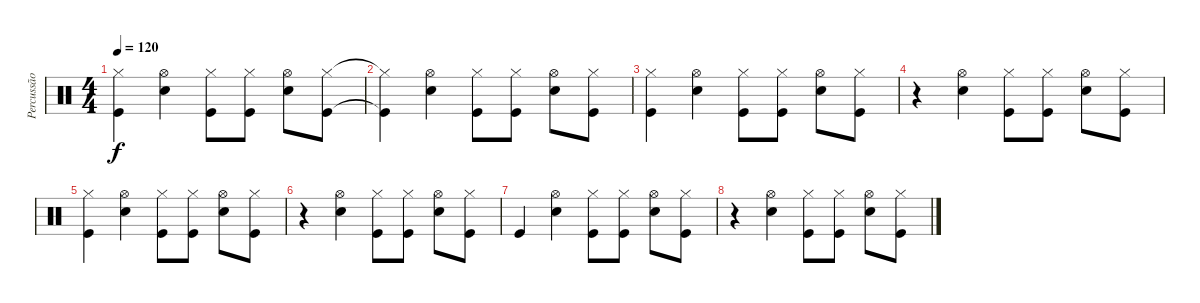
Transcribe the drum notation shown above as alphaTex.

\track ("Percussão" "Percussão") {instrument percussion}
\staff {score}
\articulation defaults
\ts (4 4)
\tempo 120
\clef neutral
\ks c
("Hi-Hat (closed)" "Kick (hit)").4{dy f} ("Hi-Hat (open)" "Snare (hit) 2").4 ("Hi-Hat (closed)" "Kick (hit)").8 ("Hi-Hat (closed)" "Kick (hit)").8 ("Hi-Hat (open)" "Snare (hit) 2").8 ("Hi-Hat (closed)" "Kick (hit)").8 |
("Hi-Hat (closed)"{t} "Kick (hit)"{t}).4 ("Hi-Hat (open)" "Snare (hit) 2").4 ("Hi-Hat (closed)" "Kick (hit)").8 ("Hi-Hat (closed)" "Kick (hit)").8 ("Hi-Hat (open)" "Snare (hit) 2").8 ("Hi-Hat (closed)" "Kick (hit)").8 |
("Hi-Hat (closed)" "Kick (hit)").4 ("Hi-Hat (open)" "Snare (hit) 2").4 ("Hi-Hat (closed)" "Kick (hit)").8 ("Hi-Hat (closed)" "Kick (hit)").8 ("Hi-Hat (open)" "Snare (hit) 2").8 ("Hi-Hat (closed)" "Kick (hit)").8 |
r.4 ("Hi-Hat (open)" "Snare (hit) 2").4 ("Hi-Hat (closed)" "Kick (hit)").8 ("Hi-Hat (closed)" "Kick (hit)").8 ("Hi-Hat (open)" "Snare (hit) 2").8 ("Hi-Hat (closed)" "Kick (hit)").8 |
("Hi-Hat (closed)" "Kick (hit)").4 ("Hi-Hat (open)" "Snare (hit) 2").4 ("Hi-Hat (closed)" "Kick (hit)").8 ("Hi-Hat (closed)" "Kick (hit)").8 ("Hi-Hat (open)" "Snare (hit) 2").8 ("Hi-Hat (closed)" "Kick (hit)").8 |
r.4 ("Hi-Hat (open)" "Snare (hit) 2").4 ("Hi-Hat (closed)" "Kick (hit)").8 ("Hi-Hat (closed)" "Kick (hit)").8 ("Hi-Hat (open)" "Snare (hit) 2").8 ("Hi-Hat (closed)" "Kick (hit)").8 |
"Kick (hit)".4 ("Hi-Hat (open)" "Snare (hit) 2").4 ("Hi-Hat (closed)" "Kick (hit)").8 ("Hi-Hat (closed)" "Kick (hit)").8 ("Hi-Hat (open)" "Snare (hit) 2").8 ("Hi-Hat (closed)" "Kick (hit)").8 |
r.4 ("Hi-Hat (open)" "Snare (hit) 2").4 ("Hi-Hat (closed)" "Kick (hit)").8 ("Hi-Hat (closed)" "Kick (hit)").8 ("Hi-Hat (open)" "Snare (hit) 2").8 ("Hi-Hat (closed)" "Kick (hit)").8
